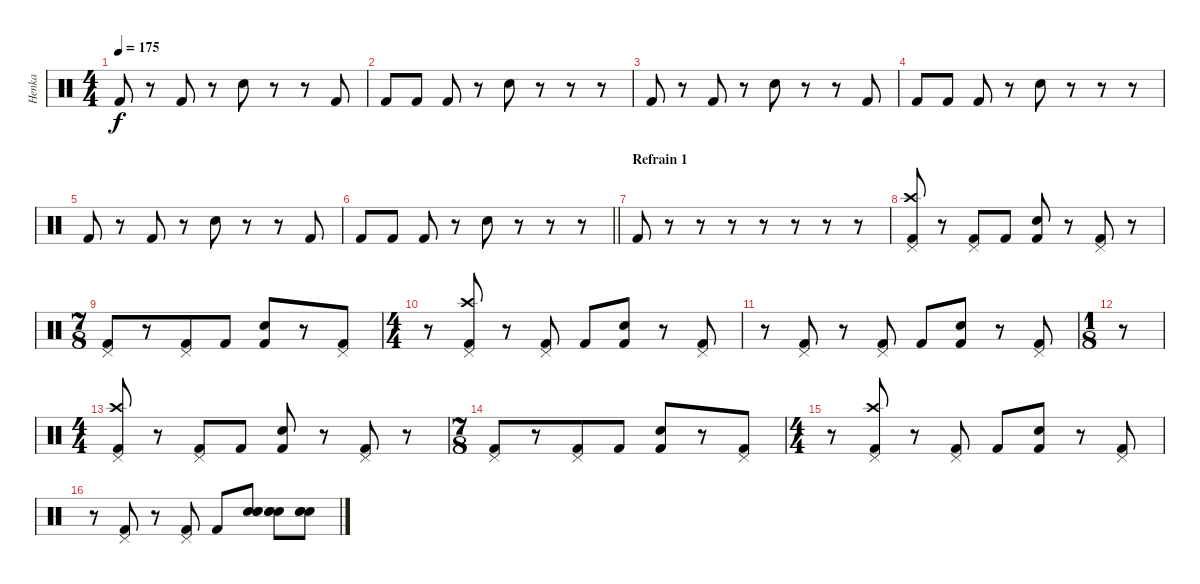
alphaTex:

\track ("Henka" "Henka") {instrument percussion}
\staff {score}
\articulation defaults
\ts (4 4)
\tempo 175
\clef neutral
\ks c "Kick (hit) 2".8{dy f}
r.8 "Kick (hit) 2".8 r.8 "Snare (hit) 2".8 r.8 r.8 "Kick (hit) 2".8 |
"Kick (hit) 2".8 "Kick (hit) 2".8 "Kick (hit) 2".8 r.8 "Snare (hit) 2".8 r.8 r.8 r.8 |
"Kick (hit) 2".8 r.8 "Kick (hit) 2".8 r.8 "Snare (hit) 2".8 r.8 r.8 "Kick (hit) 2".8 |
"Kick (hit) 2".8 "Kick (hit) 2".8 "Kick (hit) 2".8 r.8 "Snare (hit) 2".8 r.8 r.8 r.8 |
"Kick (hit) 2".8 r.8 "Kick (hit) 2".8 r.8 "Snare (hit) 2".8 r.8 r.8 "Kick (hit) 2".8 |
\barLineRight lightlight "Kick (hit) 2".8 "Kick (hit) 2".8 "Kick (hit) 2".8
r.8 "Snare (hit) 2".8 r.8 r.8 r.8 |
\section ("" "Refrain 1")
"Kick (hit) 2".8 r.8 r.8 r.8 r.8 r.8 r.8 r.8 |
("Crash high (hit)" "Pedal Hi-Hat (hit)" "Kick (hit) 2").8 r.8 ("Pedal Hi-Hat (hit)" "Kick (hit) 2").8 "Kick (hit) 2".8 ("Snare (hit) 2" "Kick (hit) 2").8 r.8 ("Pedal Hi-Hat (hit)" "Kick (hit) 2").8 r.8 |
\ts (7 8)
("Pedal Hi-Hat (hit)" "Kick (hit) 2").8 r.8 ("Pedal Hi-Hat (hit)" "Kick (hit) 2").8 "Kick (hit) 2".8 ("Snare (hit) 2" "Kick (hit) 2").8 r.8 ("Pedal Hi-Hat (hit)" "Kick (hit) 2").8 |
\ts (4 4)
r.8 ("Crash high (hit)" "Pedal Hi-Hat (hit)" "Kick (hit) 2").8 r.8 ("Pedal Hi-Hat (hit)" "Kick (hit) 2").8 "Kick (hit) 2".8 ("Snare (hit) 2" "Kick (hit) 2").8 r.8 ("Pedal Hi-Hat (hit)" "Kick (hit) 2").8 |
r.8 ("Pedal Hi-Hat (hit)" "Kick (hit) 2").8 r.8 ("Pedal Hi-Hat (hit)" "Kick (hit) 2").8 "Kick (hit) 2".8 ("Snare (hit) 2" "Kick (hit) 2").8 r.8 ("Pedal Hi-Hat (hit)" "Kick (hit) 2").8 |
\ts (1 8)
r.8 |
\ts (4 4)
("Crash high (hit)" "Pedal Hi-Hat (hit)" "Kick (hit) 2").8 r.8 ("Pedal Hi-Hat (hit)" "Kick (hit) 2").8 "Kick (hit) 2".8 ("Snare (hit) 2" "Kick (hit) 2").8 r.8 ("Pedal Hi-Hat (hit)" "Kick (hit) 2").8 r.8 |
\ts (7 8)
("Pedal Hi-Hat (hit)" "Kick (hit) 2").8 r.8 ("Pedal Hi-Hat (hit)" "Kick (hit) 2").8 "Kick (hit) 2".8 ("Snare (hit) 2" "Kick (hit) 2").8 r.8 ("Pedal Hi-Hat (hit)" "Kick (hit) 2").8 |
\ts (4 4)
r.8 ("Crash high (hit)" "Pedal Hi-Hat (hit)" "Kick (hit) 2").8 r.8 ("Pedal Hi-Hat (hit)" "Kick (hit) 2").8 "Kick (hit) 2".8 ("Snare (hit) 2" "Kick (hit) 2").8 r.8 ("Pedal Hi-Hat (hit)" "Kick (hit) 2").8 |
r.8 ("Pedal Hi-Hat (hit)" "Kick (hit) 2").8 r.8 ("Pedal Hi-Hat (hit)" "Kick (hit) 2").8 "Kick (hit) 2".8 ("Snare (hit) 2" "Electric Snare (hit)" "Snare (hit) 2").8 ("Snare (hit) 2" "Electric Snare (hit)" "Snare (hit) 2").8 ("Snare (hit) 2" "Electric Snare (hit)" "Snare (hit) 2").8
